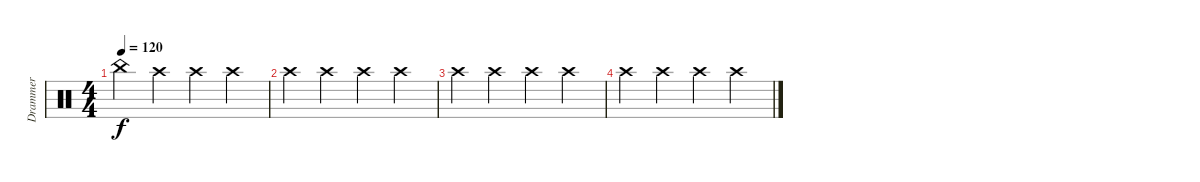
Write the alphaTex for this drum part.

\track ("Drammer" "Drammer") {instrument percussion}
\staff {score}
\articulation defaults
\ts (4 4)
\tempo 120
\clef neutral
\ks c "China (hit)".4{dy f} "Crash high (hit)".4 "Crash high (hit)".4 "Crash high (hit)".4
|
"Crash high (hit)".4 "Crash high (hit)".4 "Crash high (hit)".4 "Crash high (hit)".4 |
"Crash high (hit)".4 "Crash high (hit)".4 "Crash high (hit)".4 "Crash high (hit)".4 |
"Crash high (hit)".4 "Crash high (hit)".4 "Crash high (hit)".4 "Crash high (hit)".4
